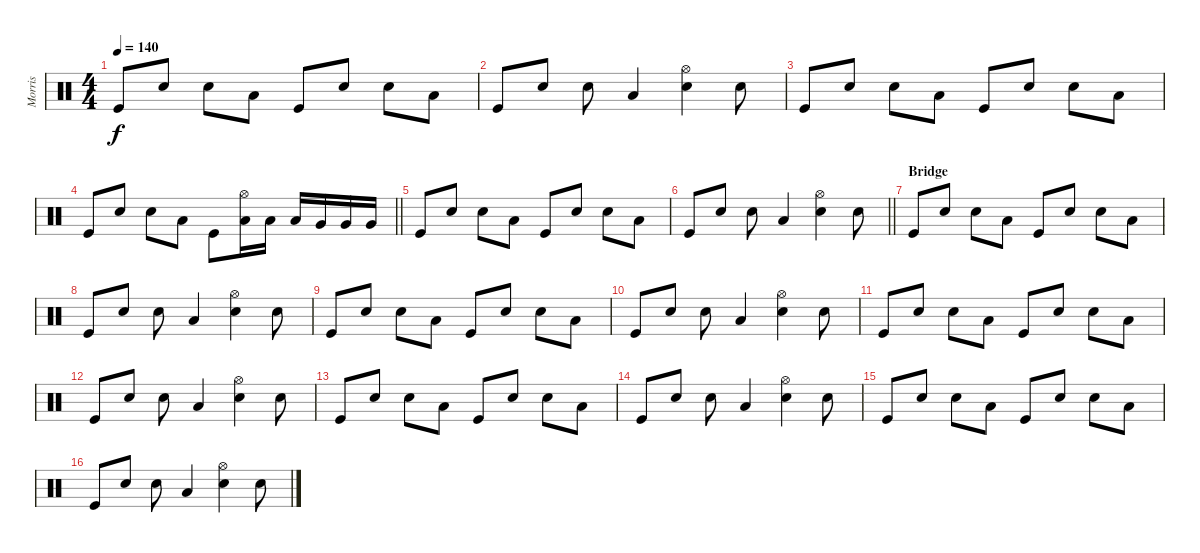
\track ("Morris" "Morris") {instrument percussion}
\staff {score}
\articulation defaults
\ts (4 4)
\tempo 140
\clef neutral
\ks c "Kick (hit)".8{dy f} "Electric Snare (hit)".8 "Electric Snare (hit)".8 "Low Tom (hit)".8 "Kick (hit)".8 "Electric Snare (hit)".8 "Electric Snare (hit)".8 "Low Tom (hit)".8
|
"Kick (hit)".8 "Electric Snare (hit)".8 "Electric Snare (hit)".8 "Low Tom (hit)".4 ("Hi-Hat (open)" "Electric Snare (hit)").4 "Electric Snare (hit)".8 |
"Kick (hit)".8 "Electric Snare (hit)".8 "Electric Snare (hit)".8 "Low Tom (hit)".8 "Kick (hit)".8 "Electric Snare (hit)".8 "Electric Snare (hit)".8 "Low Tom (hit)".8 |
\barLineRight lightlight "Kick (hit)".8 "Electric Snare (hit)".8 "Electric Snare (hit)".8 "Low Tom (hit)".8 "Kick (hit)".8
("Hi-Hat (open)" "Low Tom (hit)").16 "Low Tom (hit)".16 "Low Tom (hit)".16 "Very Low Tom (hit)".16 "Very Low Tom (hit)".16 "Very Low Tom (hit)".16 |
"Kick (hit)".8 "Electric Snare (hit)".8 "Electric Snare (hit)".8 "Low Tom (hit)".8 "Kick (hit)".8 "Electric Snare (hit)".8 "Electric Snare (hit)".8 "Low Tom (hit)".8 |
\barLineRight lightlight "Kick (hit)".8 "Electric Snare (hit)".8 "Electric Snare (hit)".8 "Low Tom (hit)".4
("Hi-Hat (open)" "Electric Snare (hit)").4 "Electric Snare (hit)".8 |
\section ("" "Bridge")
"Kick (hit)".8 "Electric Snare (hit)".8 "Electric Snare (hit)".8 "Low Tom (hit)".8 "Kick (hit)".8 "Electric Snare (hit)".8 "Electric Snare (hit)".8 "Low Tom (hit)".8 |
"Kick (hit)".8 "Electric Snare (hit)".8 "Electric Snare (hit)".8 "Low Tom (hit)".4 ("Hi-Hat (open)" "Electric Snare (hit)").4 "Electric Snare (hit)".8 |
"Kick (hit)".8 "Electric Snare (hit)".8 "Electric Snare (hit)".8 "Low Tom (hit)".8 "Kick (hit)".8 "Electric Snare (hit)".8 "Electric Snare (hit)".8 "Low Tom (hit)".8 |
"Kick (hit)".8 "Electric Snare (hit)".8 "Electric Snare (hit)".8 "Low Tom (hit)".4 ("Hi-Hat (open)" "Electric Snare (hit)").4 "Electric Snare (hit)".8 |
"Kick (hit)".8 "Electric Snare (hit)".8 "Electric Snare (hit)".8 "Low Tom (hit)".8 "Kick (hit)".8 "Electric Snare (hit)".8 "Electric Snare (hit)".8 "Low Tom (hit)".8 |
"Kick (hit)".8 "Electric Snare (hit)".8 "Electric Snare (hit)".8 "Low Tom (hit)".4 ("Hi-Hat (open)" "Electric Snare (hit)").4 "Electric Snare (hit)".8 |
"Kick (hit)".8 "Electric Snare (hit)".8 "Electric Snare (hit)".8 "Low Tom (hit)".8 "Kick (hit)".8 "Electric Snare (hit)".8 "Electric Snare (hit)".8 "Low Tom (hit)".8 |
"Kick (hit)".8 "Electric Snare (hit)".8 "Electric Snare (hit)".8 "Low Tom (hit)".4 ("Hi-Hat (open)" "Electric Snare (hit)").4 "Electric Snare (hit)".8 |
"Kick (hit)".8 "Electric Snare (hit)".8 "Electric Snare (hit)".8 "Low Tom (hit)".8 "Kick (hit)".8 "Electric Snare (hit)".8 "Electric Snare (hit)".8 "Low Tom (hit)".8 |
"Kick (hit)".8 "Electric Snare (hit)".8 "Electric Snare (hit)".8 "Low Tom (hit)".4 ("Hi-Hat (open)" "Electric Snare (hit)").4 "Electric Snare (hit)".8
